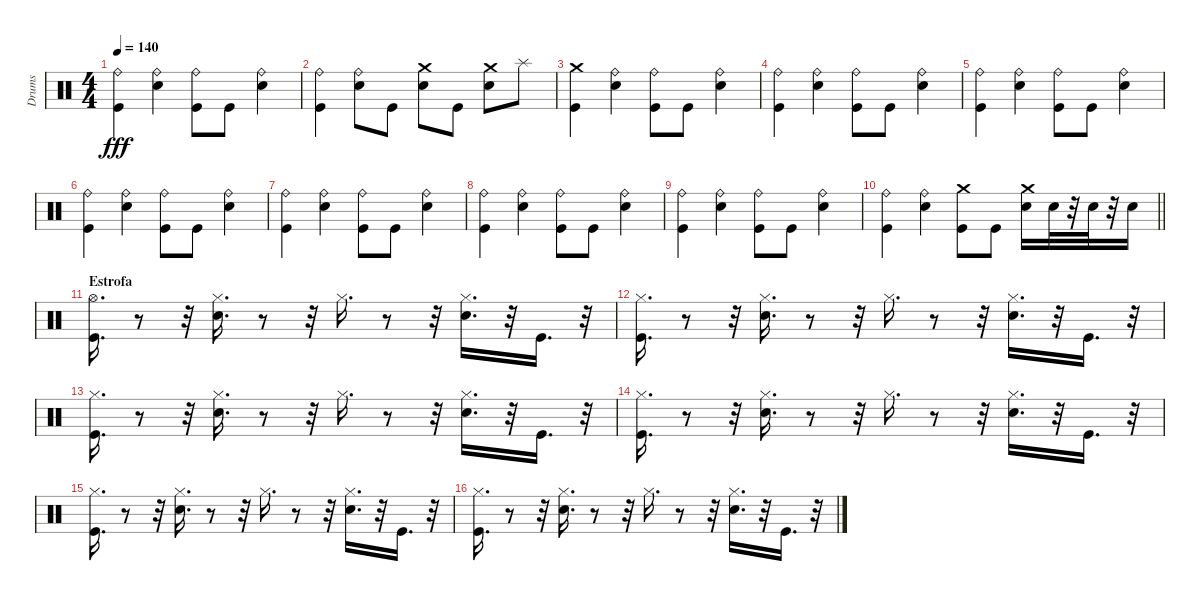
\track ("Drums" "Drums") {instrument percussion}
\staff {score}
\articulation defaults
\ts (4 4)
\tempo 140
\clef neutral
\ks c
("Ride (bell)" "Kick (hit)").4{dy fff} ("Ride (bell)" "Electric Snare (hit)").4 ("Ride (bell)" "Kick (hit)").8 "Kick (hit)".8 ("Ride (bell)" "Electric Snare (hit)").4 |
("Ride (bell)" "Kick (hit)").4 ("Ride (bell)" "Electric Snare (hit)").8 "Kick (hit)".8 ("Crash medium (hit)" "Electric Snare (hit)").8 "Kick (hit)".8 ("Crash medium (hit)" "Electric Snare (hit)").8 "Splash (hit)".8 |
("Crash medium (hit)" "Kick (hit)").4 ("Ride (bell)" "Electric Snare (hit)").4 ("Ride (bell)" "Kick (hit)").8 "Kick (hit)".8 ("Ride (bell)" "Electric Snare (hit)").4 |
("Ride (bell)" "Kick (hit)").4 ("Ride (bell)" "Electric Snare (hit)").4 ("Ride (bell)" "Kick (hit)").8 "Kick (hit)".8 ("Ride (bell)" "Electric Snare (hit)").4 |
("Ride (bell)" "Kick (hit)").4 ("Ride (bell)" "Electric Snare (hit)").4 ("Ride (bell)" "Kick (hit)").8 "Kick (hit)".8 ("Ride (bell)" "Electric Snare (hit)").4 |
("Ride (bell)" "Kick (hit)").4 ("Ride (bell)" "Electric Snare (hit)").4 ("Ride (bell)" "Kick (hit)").8 "Kick (hit)".8 ("Ride (bell)" "Electric Snare (hit)").4 |
("Ride (bell)" "Kick (hit)").4 ("Ride (bell)" "Electric Snare (hit)").4 ("Ride (bell)" "Kick (hit)").8 "Kick (hit)".8 ("Ride (bell)" "Electric Snare (hit)").4 |
("Ride (bell)" "Kick (hit)").4 ("Ride (bell)" "Electric Snare (hit)").4 ("Ride (bell)" "Kick (hit)").8 "Kick (hit)".8 ("Ride (bell)" "Electric Snare (hit)").4 |
("Ride (bell)" "Kick (hit)").4 ("Ride (bell)" "Electric Snare (hit)").4 ("Ride (bell)" "Kick (hit)").8 "Kick (hit)".8 ("Ride (bell)" "Electric Snare (hit)").4 |
\barLineRight lightlight
("Ride (bell)" "Kick (hit)").4 ("Ride (bell)" "Electric Snare (hit)").4 ("Crash medium (hit)" "Kick (hit)").8 "Kick (hit)".8 ("Crash medium (hit)" "Electric Snare (hit)").16 "Electric Snare (hit)".32 r.32 "Electric Snare (hit)".32 r.32 "Electric Snare (hit)".16 |
\section ("" "Estrofa")
("Hi-Hat (open)" "Kick (hit)").16{d} r.8 r.32 ("Hi-Hat (closed)" "Electric Snare (hit)").16{d} r.8 r.32 "Hi-Hat (closed)".16{d} r.8 r.32 ("Hi-Hat (closed)" "Electric Snare (hit)").16{d} r.32 "Kick (hit)".16{d} r.32 |
("Hi-Hat (closed)" "Kick (hit)").16{d} r.8 r.32 ("Hi-Hat (closed)" "Electric Snare (hit)").16{d} r.8 r.32 "Hi-Hat (closed)".16{d} r.8 r.32 ("Hi-Hat (closed)" "Electric Snare (hit)").16{d} r.32 "Kick (hit)".16{d} r.32 |
("Hi-Hat (closed)" "Kick (hit)").16{d} r.8 r.32 ("Hi-Hat (closed)" "Electric Snare (hit)").16{d} r.8 r.32 "Hi-Hat (closed)".16{d} r.8 r.32 ("Hi-Hat (closed)" "Electric Snare (hit)").16{d} r.32 "Kick (hit)".16{d} r.32 |
("Hi-Hat (closed)" "Kick (hit)").16{d} r.8 r.32 ("Hi-Hat (closed)" "Electric Snare (hit)").16{d} r.8 r.32 "Hi-Hat (closed)".16{d} r.8 r.32 ("Hi-Hat (closed)" "Electric Snare (hit)").16{d} r.32 "Kick (hit)".16{d} r.32 |
("Hi-Hat (closed)" "Kick (hit)").16{d} r.8 r.32 ("Hi-Hat (closed)" "Electric Snare (hit)").16{d} r.8 r.32 "Hi-Hat (closed)".16{d} r.8 r.32 ("Hi-Hat (closed)" "Electric Snare (hit)").16{d} r.32 "Kick (hit)".16{d} r.32 |
("Hi-Hat (closed)" "Kick (hit)").16{d} r.8 r.32 ("Hi-Hat (closed)" "Electric Snare (hit)").16{d} r.8 r.32 "Hi-Hat (closed)".16{d} r.8 r.32 ("Hi-Hat (closed)" "Electric Snare (hit)").16{d} r.32 "Kick (hit)".16{d} r.32
